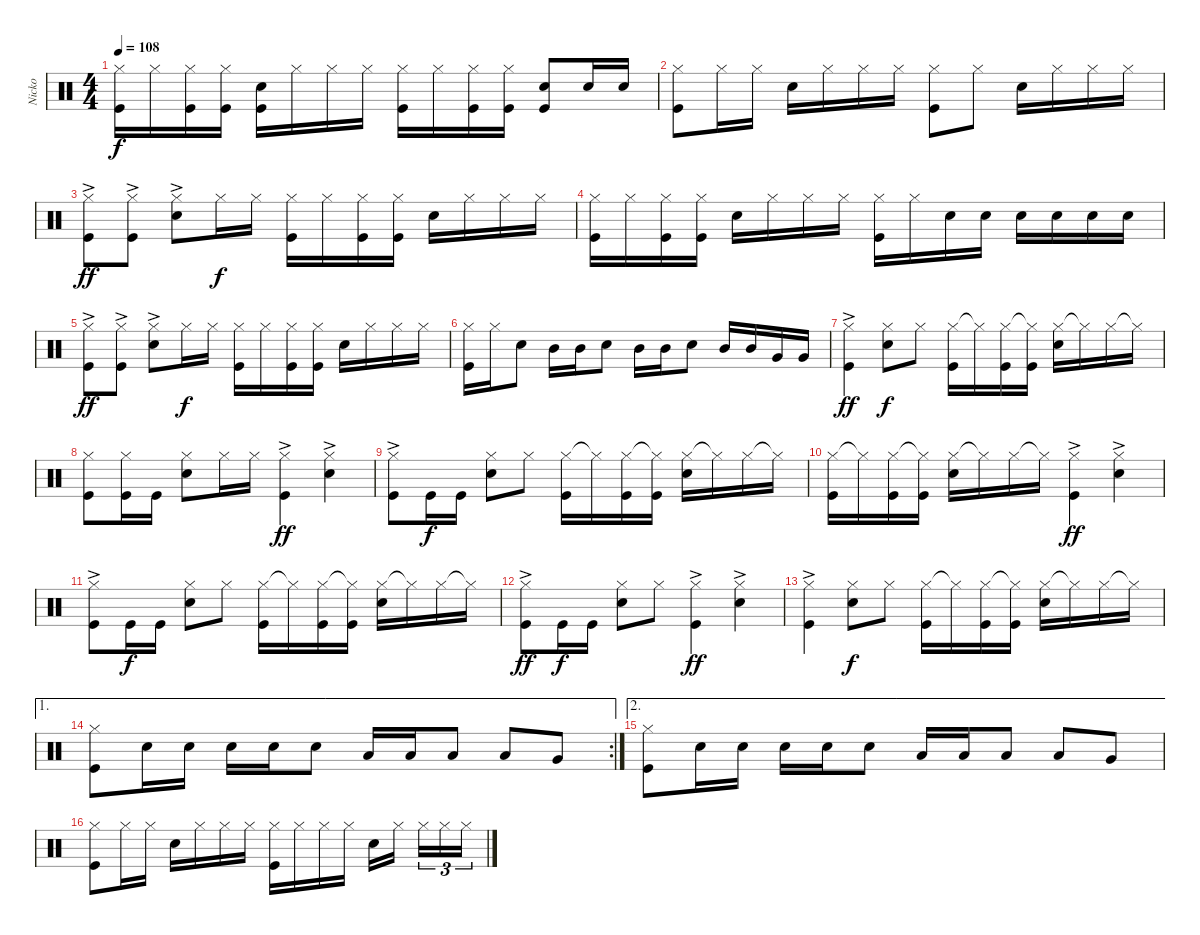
\track ("Nicko" "Nicko") {instrument percussion}
\staff {score}
\articulation defaults
\ts (4 4)
\tempo 108
\clef neutral
\ks c
("Hi-Hat (closed)" "Kick (hit)").16{dy f} "Hi-Hat (closed)".16 ("Hi-Hat (closed)" "Kick (hit)").16 ("Hi-Hat (closed)" "Kick (hit)").16 ("Kick (hit)" "Snare (hit) 2").16 "Hi-Hat (closed)".16 "Hi-Hat (closed)".16 "Hi-Hat (closed)".16 ("Hi-Hat (closed)" "Kick (hit)").16 "Hi-Hat (closed)".16 ("Hi-Hat (closed)" "Kick (hit)").16 ("Hi-Hat (closed)" "Kick (hit)").16 ("Kick (hit)" "Snare (hit) 2").8 "Snare (hit) 2".16 "Snare (hit) 2".16 |
("Hi-Hat (closed)" "Kick (hit)").8 "Hi-Hat (closed)".16 "Hi-Hat (closed)".16 "Snare (hit) 2".16 "Hi-Hat (closed)".16 "Hi-Hat (closed)".16 "Hi-Hat (closed)".16 ("Hi-Hat (closed)" "Kick (hit)").8 "Hi-Hat (closed)".8 "Snare (hit) 2".16 "Hi-Hat (closed)".16 "Hi-Hat (closed)".16 "Hi-Hat (closed)".16 |
("Hi-Hat (closed)" "Kick (hit)"{ac}).8{dy ff} ("Hi-Hat (closed)" "Kick (hit)"{ac}).8 ("Hi-Hat (closed)" "Snare (hit) 2"{ac}).8 "Hi-Hat (closed)".16{dy f} "Hi-Hat (closed)".16 ("Hi-Hat (closed)" "Kick (hit)").16 "Hi-Hat (closed)".16 ("Hi-Hat (closed)" "Kick (hit)").16 ("Hi-Hat (closed)" "Kick (hit)").16 "Snare (hit) 2".16 "Hi-Hat (closed)".16 "Hi-Hat (closed)".16 "Hi-Hat (closed)".16 |
("Hi-Hat (closed)" "Kick (hit)").16 "Hi-Hat (closed)".16 ("Hi-Hat (closed)" "Kick (hit)").16 ("Hi-Hat (closed)" "Kick (hit)").16 "Snare (hit) 2".16 "Hi-Hat (closed)".16 "Hi-Hat (closed)".16 "Hi-Hat (closed)".16 ("Hi-Hat (closed)" "Kick (hit)").16 "Hi-Hat (closed)".16 "Snare (hit) 2".16 "Snare (hit) 2".16 "Snare (hit) 2".16 "Snare (hit) 2".16 "Snare (hit) 2".16 "Snare (hit) 2".16 |
("Hi-Hat (closed)" "Kick (hit)"{ac}).8{dy ff} ("Hi-Hat (closed)" "Kick (hit)"{ac}).8 ("Hi-Hat (closed)" "Snare (hit) 2"{ac}).8 "Hi-Hat (closed)".16{dy f} "Hi-Hat (closed)".16 ("Hi-Hat (closed)" "Kick (hit)").16 "Hi-Hat (closed)".16 ("Hi-Hat (closed)" "Kick (hit)").16 ("Hi-Hat (closed)" "Kick (hit)").16 "Snare (hit) 2".16 "Hi-Hat (closed)".16 "Hi-Hat (closed)".16 "Hi-Hat (closed)".16 |
("Hi-Hat (closed)" "Kick (hit)").16 "Hi-Hat (closed)".16 "Snare (hit) 2".8 "Mid Tom (hit)".16 "Mid Tom (hit)".16 "Snare (hit) 2".8 "Mid Tom (hit)".16 "Mid Tom (hit)".16 "Snare (hit) 2".8 "Mid Tom (hit)".16 "Mid Tom (hit)".16 "Very Low Tom (hit)".16 "Very Low Tom (hit)".16 |
("Hi-Hat (closed)"{ac} "Kick (hit)").4{dy ff} ("Hi-Hat (closed)" "Snare (hit) 2").8{dy f} "Hi-Hat (closed)".8 ("Hi-Hat (closed)" "Kick (hit)").16 "Hi-Hat (closed)"{t}.16 ("Hi-Hat (closed)" "Kick (hit)").16 ("Hi-Hat (closed)"{t} "Kick (hit)").16 ("Hi-Hat (closed)" "Snare (hit) 2").16 "Hi-Hat (closed)"{t}.16 "Hi-Hat (closed)".16 "Hi-Hat (closed)"{t}.16 |
("Hi-Hat (closed)" "Kick (hit)").8 ("Hi-Hat (closed)" "Kick (hit)").16 "Kick (hit)".16 ("Hi-Hat (closed)" "Snare (hit) 2").8 "Hi-Hat (closed)".16 "Hi-Hat (closed)".16 ("Hi-Hat (closed)" "Kick (hit)"{ac}).4{dy ff} ("Hi-Hat (closed)"{ac} "Snare (hit) 2").4 |
("Hi-Hat (closed)" "Kick (hit)"{ac}).8 "Kick (hit)".16{dy f} "Kick (hit)".16 ("Hi-Hat (closed)" "Snare (hit) 2").8 "Hi-Hat (closed)".8 ("Hi-Hat (closed)" "Kick (hit)").16 "Hi-Hat (closed)"{t}.16 ("Hi-Hat (closed)" "Kick (hit)").16 ("Hi-Hat (closed)"{t} "Kick (hit)").16 ("Hi-Hat (closed)" "Snare (hit) 2").16 "Hi-Hat (closed)"{t}.16 "Hi-Hat (closed)".16 "Hi-Hat (closed)"{t}.16 |
("Hi-Hat (closed)" "Kick (hit)").16 "Hi-Hat (closed)"{t}.16 ("Hi-Hat (closed)" "Kick (hit)").16 ("Hi-Hat (closed)"{t} "Kick (hit)").16 ("Hi-Hat (closed)" "Snare (hit) 2").16 "Hi-Hat (closed)"{t}.16 "Hi-Hat (closed)".16 "Hi-Hat (closed)"{t}.16 ("Hi-Hat (closed)" "Kick (hit)"{ac}).4{dy ff} ("Hi-Hat (closed)"{ac} "Snare (hit) 2").4 |
("Hi-Hat (closed)" "Kick (hit)"{ac}).8 "Kick (hit)".16{dy f} "Kick (hit)".16 ("Hi-Hat (closed)" "Snare (hit) 2").8 "Hi-Hat (closed)".8 ("Hi-Hat (closed)" "Kick (hit)").16 "Hi-Hat (closed)"{t}.16 ("Hi-Hat (closed)" "Kick (hit)").16 ("Hi-Hat (closed)"{t} "Kick (hit)").16 ("Hi-Hat (closed)" "Snare (hit) 2").16 "Hi-Hat (closed)"{t}.16 "Hi-Hat (closed)".16 "Hi-Hat (closed)"{t}.16 |
("Hi-Hat (closed)" "Kick (hit)"{ac}).8{dy ff} "Kick (hit)".16{dy f} "Kick (hit)".16 ("Hi-Hat (closed)" "Snare (hit) 2").8 "Hi-Hat (closed)".8 ("Hi-Hat (closed)" "Kick (hit)"{ac}).4{dy ff} ("Hi-Hat (closed)"{ac} "Snare (hit) 2").4 |
("Hi-Hat (closed)"{ac} "Kick (hit)").4 ("Hi-Hat (closed)" "Snare (hit) 2").8{dy f} "Hi-Hat (closed)".8 ("Hi-Hat (closed)" "Kick (hit)").16 "Hi-Hat (closed)"{t}.16 ("Hi-Hat (closed)" "Kick (hit)").16 ("Hi-Hat (closed)"{t} "Kick (hit)").16 ("Hi-Hat (closed)" "Snare (hit) 2").16 "Hi-Hat (closed)"{t}.16 "Hi-Hat (closed)".16 "Hi-Hat (closed)"{t}.16 |
\ae 1
\rc 2
("Hi-Hat (closed)" "Kick (hit)").8 "Snare (hit) 2".16 "Snare (hit) 2".16 "Snare (hit) 2".16 "Snare (hit) 2".16 "Snare (hit) 2".8 "Low Tom (hit)".16 "Low Tom (hit)".16 "Low Tom (hit)".8 "Low Tom (hit)".8 "Very Low Tom (hit)".8 |
\ae 2
("Hi-Hat (closed)" "Kick (hit)").8 "Snare (hit) 2".16 "Snare (hit) 2".16 "Snare (hit) 2".16 "Snare (hit) 2".16 "Snare (hit) 2".8 "Low Tom (hit)".16 "Low Tom (hit)".16 "Low Tom (hit)".8 "Low Tom (hit)".8 "Very Low Tom (hit)".8 |
("Hi-Hat (closed)" "Kick (hit)").8 "Hi-Hat (closed)".16 "Hi-Hat (closed)".16 "Snare (hit) 2".16 "Hi-Hat (closed)".16 "Hi-Hat (closed)".16 "Hi-Hat (closed)".16 ("Hi-Hat (closed)" "Kick (hit)").16 "Hi-Hat (closed)".16 "Hi-Hat (closed)".16 "Hi-Hat (closed)".16 "Snare (hit) 2".16 "Hi-Hat (closed)".16{beam splitsecondary} "Hi-Hat (closed)".16{tu (3 2)} "Hi-Hat (closed)".16{tu (3 2)} "Hi-Hat (closed)".16{tu (3 2)}
